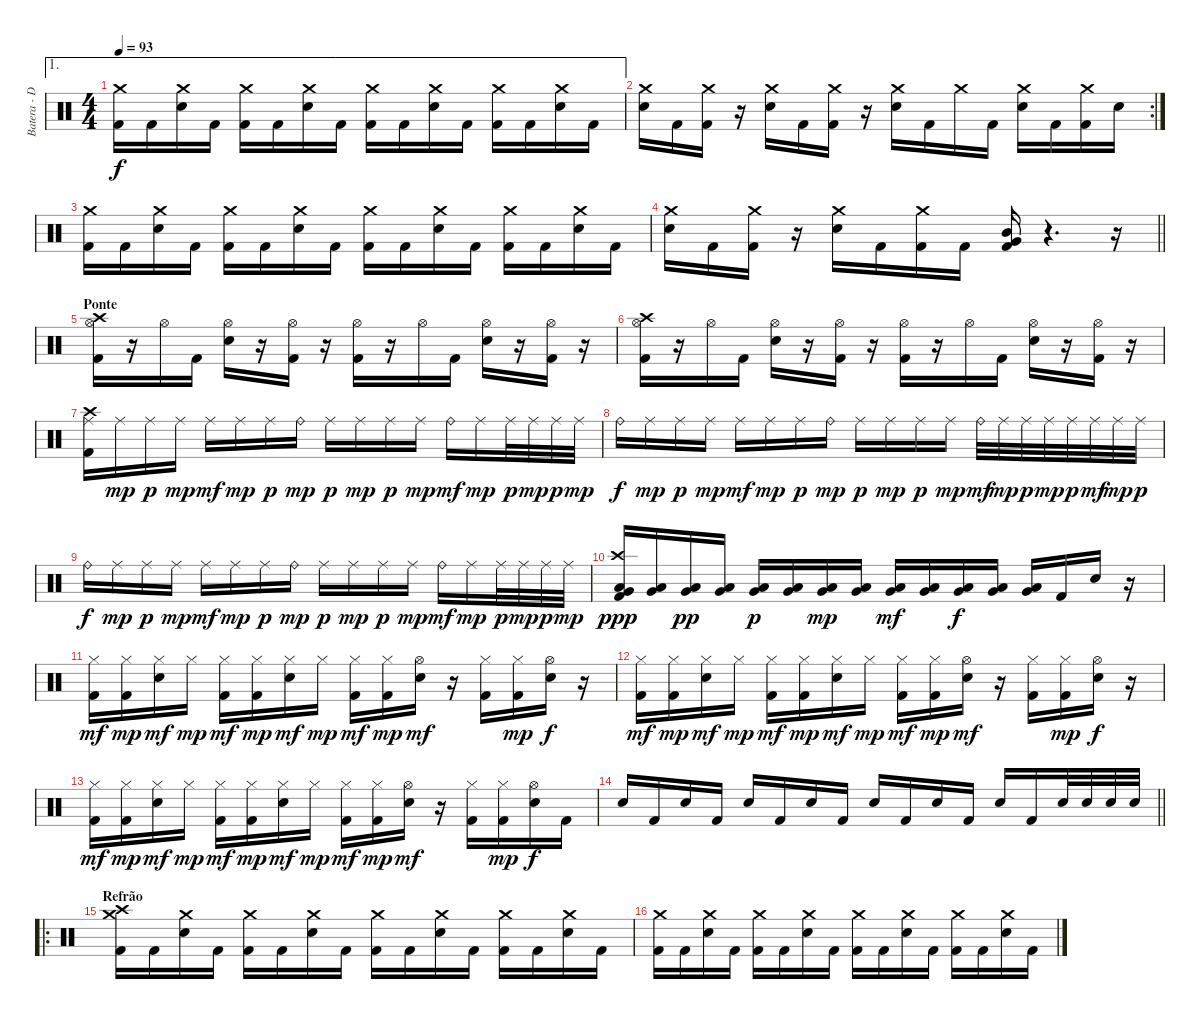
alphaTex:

\track ("Batera - Daniel" "Batera - D") {instrument percussion}
\staff {score}
\articulation defaults
\ae 1
\ts (4 4)
\tempo 93
\clef neutral
\ks c
("Crash medium (hit)" "Kick (hit) 2").16{dy f} "Kick (hit) 2".16 ("Crash medium (hit)" "Electric Snare (hit)").16 "Kick (hit) 2".16 ("Crash medium (hit)" "Kick (hit) 2").16 "Kick (hit) 2".16 ("Crash medium (hit)" "Electric Snare (hit)").16 "Kick (hit) 2".16 ("Crash medium (hit)" "Kick (hit) 2").16 "Kick (hit) 2".16 ("Crash medium (hit)" "Electric Snare (hit)").16 "Kick (hit) 2".16 ("Crash medium (hit)" "Kick (hit) 2").16 "Kick (hit) 2".16 ("Crash medium (hit)" "Electric Snare (hit)").16 "Kick (hit) 2".16 |
\rc 2
("Crash medium (hit)" "Electric Snare (hit)").16 "Kick (hit) 2".16 ("Crash medium (hit)" "Kick (hit) 2").16 r.16 ("Crash medium (hit)" "Electric Snare (hit)").16 "Kick (hit) 2".16 ("Crash medium (hit)" "Kick (hit) 2").16 r.16 ("Crash medium (hit)" "Electric Snare (hit)").16 "Kick (hit) 2".16 "Crash medium (hit)".16 "Kick (hit) 2".16 ("Crash medium (hit)" "Electric Snare (hit)").16 "Kick (hit) 2".16 ("Crash medium (hit)" "Kick (hit) 2").16 "Electric Snare (hit)".16 |
("Crash medium (hit)" "Kick (hit) 2").16 "Kick (hit) 2".16 ("Crash medium (hit)" "Electric Snare (hit)").16 "Kick (hit) 2".16 ("Crash medium (hit)" "Kick (hit) 2").16 "Kick (hit) 2".16 ("Crash medium (hit)" "Electric Snare (hit)").16 "Kick (hit) 2".16 ("Crash medium (hit)" "Kick (hit) 2").16 "Kick (hit) 2".16 ("Crash medium (hit)" "Electric Snare (hit)").16 "Kick (hit) 2".16 ("Crash medium (hit)" "Kick (hit) 2").16 "Kick (hit) 2".16 ("Crash medium (hit)" "Electric Snare (hit)").16 "Kick (hit) 2".16 |
\barLineRight lightlight
("Crash medium (hit)" "Electric Snare (hit)").16 "Kick (hit) 2".16 ("Crash medium (hit)" "Kick (hit) 2").16 r.16 ("Crash medium (hit)" "Electric Snare (hit)").16 "Kick (hit) 2".16 ("Crash medium (hit)" "Kick (hit) 2").16 "Kick (hit) 2".16 ("Mid Tom (hit)" "Very Low Tom (hit)" "Kick (hit) 2").16 r.4{d} r.16 |
\section ("" "Ponte")
("Crash high (hit)" "Hi-Hat (open)" "Kick (hit) 2").16 r.16 "Hi-Hat (open)".16 "Kick (hit) 2".16 ("Hi-Hat (open)" "Electric Snare (hit)").16 r.16 ("Hi-Hat (open)" "Kick (hit) 2").16 r.16 ("Hi-Hat (open)" "Kick (hit) 2").16 r.16 "Hi-Hat (open)".16 "Kick (hit) 2".16 ("Hi-Hat (open)" "Electric Snare (hit)").16 r.16 ("Hi-Hat (open)" "Kick (hit) 2").16 r.16 |
("Crash high (hit)" "Hi-Hat (open)" "Kick (hit) 2").16 r.16 "Hi-Hat (open)".16 "Kick (hit) 2".16 ("Hi-Hat (open)" "Electric Snare (hit)").16 r.16 ("Hi-Hat (open)" "Kick (hit) 2").16 r.16 ("Hi-Hat (open)" "Kick (hit) 2").16 r.16 "Hi-Hat (open)".16 "Kick (hit) 2".16 ("Hi-Hat (open)" "Electric Snare (hit)").16 r.16 ("Hi-Hat (open)" "Kick (hit) 2").16 r.16 |
("Crash high (hit)" "Ride (middle)" "Kick (hit) 2").16 "Ride (middle)".16{dy mp} "Ride (middle)".16{dy p} "Ride (middle)".16{dy mp} "Ride (middle)".16{dy mf} "Ride (middle)".16{dy mp} "Ride (middle)".16{dy p} "Ride (bell)".16{dy mp} "Ride (middle)".16{dy p} "Ride (middle)".16{dy mp} "Ride (middle)".16{dy p} "Ride (middle)".16{dy mp} "Ride (bell)".16{dy mf} "Ride (middle)".16{dy mp} "Ride (middle)".32{dy p} "Ride (middle)".32{dy mp} "Ride (middle)".32{dy p} "Ride (middle)".32{dy mp} |
"Ride (bell)".16{dy f} "Ride (middle)".16{dy mp} "Ride (middle)".16{dy p} "Ride (middle)".16{dy mp} "Ride (middle)".16{dy mf} "Ride (middle)".16{dy mp} "Ride (middle)".16{dy p} "Ride (bell)".16{dy mp} "Ride (middle)".16{dy p} "Ride (middle)".16{dy mp} "Ride (middle)".16{dy p} "Ride (middle)".16{dy mp} "Ride (bell)".32{dy mf} "Ride (middle)".32{dy mp} "Ride (middle)".32{dy p} "Ride (middle)".32{dy mp} "Ride (middle)".32{dy p} "Ride (middle)".32{dy mf} "Ride (middle)".32{dy mp} "Ride (middle)".32{dy p} |
"Ride (bell)".16{dy f} "Ride (middle)".16{dy mp} "Ride (middle)".16{dy p} "Ride (middle)".16{dy mp} "Ride (middle)".16{dy mf} "Ride (middle)".16{dy mp} "Ride (middle)".16{dy p} "Ride (bell)".16{dy mp} "Ride (middle)".16{dy p} "Ride (middle)".16{dy mp} "Ride (middle)".16{dy p} "Ride (middle)".16{dy mp} "Ride (bell)".16{dy mf} "Ride (middle)".16{dy mp} "Ride (middle)".32{dy p} "Ride (middle)".32{dy mp} "Ride (middle)".32{dy p} "Ride (middle)".32{dy mp} |
("Crash high (hit)" "Low Tom (hit)" "Very Low Tom (hit)" "Kick (hit) 2").16{dy ppp} ("Low Tom (hit)" "Very Low Tom (hit)").16 ("Low Tom (hit)" "Very Low Tom (hit)").16{dy pp} ("Low Tom (hit)" "Very Low Tom (hit)").16 ("Low Tom (hit)" "Very Low Tom (hit)").16{dy p} ("Low Tom (hit)" "Very Low Tom (hit)").16 ("Low Tom (hit)" "Very Low Tom (hit)").16{dy mp} ("Low Tom (hit)" "Very Low Tom (hit)").16 ("Low Tom (hit)" "Very Low Tom (hit)").16{dy mf} ("Low Tom (hit)" "Very Low Tom (hit)").16 ("Low Tom (hit)" "Very Low Tom (hit)").16{dy f} ("Low Tom (hit)" "Very Low Tom (hit)").16 ("Low Tom (hit)" "Very Low Tom (hit)").16 "Kick (hit) 2".16 "Electric Snare (hit)".16 r.16 |
("Hi-Hat (closed)" "Kick (hit) 2").16{dy mf} ("Hi-Hat (closed)" "Kick (hit) 2").16{dy mp} ("Hi-Hat (closed)" "Electric Snare (hit)").16{dy mf} "Hi-Hat (closed)".16{dy mp} ("Hi-Hat (closed)" "Kick (hit) 2").16{dy mf} ("Hi-Hat (closed)" "Kick (hit) 2").16{dy mp} ("Hi-Hat (closed)" "Electric Snare (hit)").16{dy mf} "Hi-Hat (closed)".16{dy mp} ("Hi-Hat (closed)" "Kick (hit) 2").16{dy mf} ("Hi-Hat (closed)" "Kick (hit) 2").16{dy mp} ("Hi-Hat (open)" "Electric Snare (hit)").16{dy mf} r.16 ("Hi-Hat (closed)" "Kick (hit) 2").16 ("Hi-Hat (closed)" "Kick (hit) 2").16{dy mp} ("Hi-Hat (open)" "Electric Snare (hit)").16{dy f} r.16 |
("Hi-Hat (closed)" "Kick (hit) 2").16{dy mf} ("Hi-Hat (closed)" "Kick (hit) 2").16{dy mp} ("Hi-Hat (closed)" "Electric Snare (hit)").16{dy mf} "Hi-Hat (closed)".16{dy mp} ("Hi-Hat (closed)" "Kick (hit) 2").16{dy mf} ("Hi-Hat (closed)" "Kick (hit) 2").16{dy mp} ("Hi-Hat (closed)" "Electric Snare (hit)").16{dy mf} "Hi-Hat (closed)".16{dy mp} ("Hi-Hat (closed)" "Kick (hit) 2").16{dy mf} ("Hi-Hat (closed)" "Kick (hit) 2").16{dy mp} ("Hi-Hat (open)" "Electric Snare (hit)").16{dy mf} r.16 ("Hi-Hat (closed)" "Kick (hit) 2").16 ("Hi-Hat (closed)" "Kick (hit) 2").16{dy mp} ("Hi-Hat (open)" "Electric Snare (hit)").16{dy f} r.16 |
("Hi-Hat (closed)" "Kick (hit) 2").16{dy mf} ("Hi-Hat (closed)" "Kick (hit) 2").16{dy mp} ("Hi-Hat (closed)" "Electric Snare (hit)").16{dy mf} "Hi-Hat (closed)".16{dy mp} ("Hi-Hat (closed)" "Kick (hit) 2").16{dy mf} ("Hi-Hat (closed)" "Kick (hit) 2").16{dy mp} ("Hi-Hat (closed)" "Electric Snare (hit)").16{dy mf} "Hi-Hat (closed)".16{dy mp} ("Hi-Hat (closed)" "Kick (hit) 2").16{dy mf} ("Hi-Hat (closed)" "Kick (hit) 2").16{dy mp} ("Hi-Hat (open)" "Electric Snare (hit)").16{dy mf} r.16 ("Hi-Hat (closed)" "Kick (hit) 2").16 ("Hi-Hat (closed)" "Kick (hit) 2").16{dy mp} ("Hi-Hat (open)" "Electric Snare (hit)").16{dy f} "Kick (hit) 2".16 |
\barLineRight lightlight "Electric Snare (hit)".16 "Kick (hit) 2".16 "Electric Snare (hit)".16 "Kick (hit) 2".16 "Electric Snare (hit)".16 "Kick (hit) 2".16 "Electric Snare (hit)".16 "Kick (hit) 2".16 "Electric Snare (hit)".16 "Kick (hit) 2".16 "Electric Snare (hit)".16 "Kick (hit) 2".16 "Electric Snare (hit)".16 "Kick (hit) 2".16 "Electric Snare (hit)".32 "Electric Snare (hit)".32 "Electric Snare (hit)".32 "Electric Snare (hit)".32
|
\ro
\section ("" "Refrão")
("Crash high (hit)" "Crash medium (hit)" "Kick (hit) 2").16 "Kick (hit) 2".16 ("Crash medium (hit)" "Electric Snare (hit)").16 "Kick (hit) 2".16 ("Crash medium (hit)" "Kick (hit) 2").16 "Kick (hit) 2".16 ("Crash medium (hit)" "Electric Snare (hit)").16 "Kick (hit) 2".16 ("Crash medium (hit)" "Kick (hit) 2").16 "Kick (hit) 2".16 ("Crash medium (hit)" "Electric Snare (hit)").16 "Kick (hit) 2".16 ("Crash medium (hit)" "Kick (hit) 2").16 "Kick (hit) 2".16 ("Crash medium (hit)" "Electric Snare (hit)").16 "Kick (hit) 2".16 |
("Crash medium (hit)" "Kick (hit) 2").16 "Kick (hit) 2".16 ("Crash medium (hit)" "Electric Snare (hit)").16 "Kick (hit) 2".16 ("Crash medium (hit)" "Kick (hit) 2").16 "Kick (hit) 2".16 ("Crash medium (hit)" "Electric Snare (hit)").16 "Kick (hit) 2".16 ("Crash medium (hit)" "Kick (hit) 2").16 "Kick (hit) 2".16 ("Crash medium (hit)" "Electric Snare (hit)").16 "Kick (hit) 2".16 ("Crash medium (hit)" "Kick (hit) 2").16 "Kick (hit) 2".16 ("Crash medium (hit)" "Electric Snare (hit)").16 "Kick (hit) 2".16
